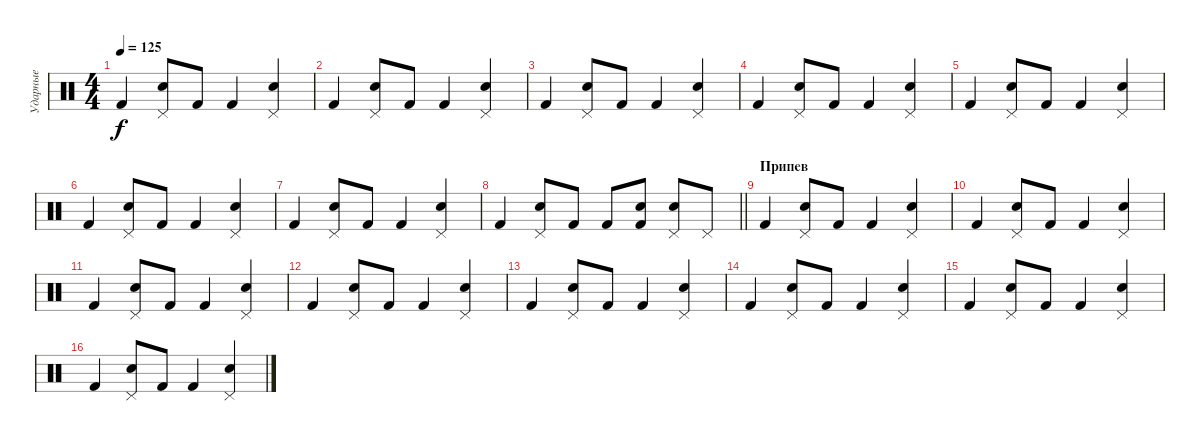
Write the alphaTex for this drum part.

\track ("Ударные" "Ударные") {instrument percussion}
\staff {score}
\articulation defaults
\ts (4 4)
\tempo 125
\clef neutral
\ks c "Kick (hit) 2".4{dy f}
("Electric Snare (hit)" "Pedal Hi-Hat (hit)").8 "Kick (hit) 2".8 "Kick (hit) 2".4 ("Electric Snare (hit)" "Pedal Hi-Hat (hit)").4 |
"Kick (hit) 2".4 ("Electric Snare (hit)" "Pedal Hi-Hat (hit)").8 "Kick (hit) 2".8 "Kick (hit) 2".4 ("Electric Snare (hit)" "Pedal Hi-Hat (hit)").4 |
"Kick (hit) 2".4 ("Electric Snare (hit)" "Pedal Hi-Hat (hit)").8 "Kick (hit) 2".8 "Kick (hit) 2".4 ("Electric Snare (hit)" "Pedal Hi-Hat (hit)").4 |
"Kick (hit) 2".4 ("Electric Snare (hit)" "Pedal Hi-Hat (hit)").8 "Kick (hit) 2".8 "Kick (hit) 2".4 ("Electric Snare (hit)" "Pedal Hi-Hat (hit)").4 |
"Kick (hit) 2".4 ("Electric Snare (hit)" "Pedal Hi-Hat (hit)").8 "Kick (hit) 2".8 "Kick (hit) 2".4 ("Electric Snare (hit)" "Pedal Hi-Hat (hit)").4 |
"Kick (hit) 2".4 ("Electric Snare (hit)" "Pedal Hi-Hat (hit)").8 "Kick (hit) 2".8 "Kick (hit) 2".4 ("Electric Snare (hit)" "Pedal Hi-Hat (hit)").4 |
"Kick (hit) 2".4 ("Electric Snare (hit)" "Pedal Hi-Hat (hit)").8 "Kick (hit) 2".8 "Kick (hit) 2".4 ("Electric Snare (hit)" "Pedal Hi-Hat (hit)").4 |
\barLineRight lightlight "Kick (hit) 2".4
("Electric Snare (hit)" "Pedal Hi-Hat (hit)").8 "Kick (hit) 2".8 "Kick (hit) 2".8 ("Electric Snare (hit)" "Kick (hit) 2").8 ("Electric Snare (hit)" "Pedal Hi-Hat (hit)").8 "Pedal Hi-Hat (hit)".8 |
\section ("" "Припев")
"Kick (hit) 2".4 ("Snare (hit) 2" "Pedal Hi-Hat (hit)").8 "Kick (hit) 2".8 "Kick (hit) 2".4 ("Snare (hit) 2" "Pedal Hi-Hat (hit)").4 |
"Kick (hit) 2".4 ("Snare (hit) 2" "Pedal Hi-Hat (hit)").8 "Kick (hit) 2".8 "Kick (hit) 2".4 ("Snare (hit) 2" "Pedal Hi-Hat (hit)").4 |
"Kick (hit) 2".4 ("Snare (hit) 2" "Pedal Hi-Hat (hit)").8 "Kick (hit) 2".8 "Kick (hit) 2".4 ("Snare (hit) 2" "Pedal Hi-Hat (hit)").4 |
"Kick (hit) 2".4 ("Snare (hit) 2" "Pedal Hi-Hat (hit)").8 "Kick (hit) 2".8 "Kick (hit) 2".4 ("Snare (hit) 2" "Pedal Hi-Hat (hit)").4 |
"Kick (hit) 2".4 ("Snare (hit) 2" "Pedal Hi-Hat (hit)").8 "Kick (hit) 2".8 "Kick (hit) 2".4 ("Snare (hit) 2" "Pedal Hi-Hat (hit)").4 |
"Kick (hit) 2".4 ("Snare (hit) 2" "Pedal Hi-Hat (hit)").8 "Kick (hit) 2".8 "Kick (hit) 2".4 ("Snare (hit) 2" "Pedal Hi-Hat (hit)").4 |
"Kick (hit) 2".4 ("Snare (hit) 2" "Pedal Hi-Hat (hit)").8 "Kick (hit) 2".8 "Kick (hit) 2".4 ("Snare (hit) 2" "Pedal Hi-Hat (hit)").4 |
"Kick (hit) 2".4 ("Snare (hit) 2" "Pedal Hi-Hat (hit)").8 "Kick (hit) 2".8 "Kick (hit) 2".4 ("Snare (hit) 2" "Pedal Hi-Hat (hit)").4
